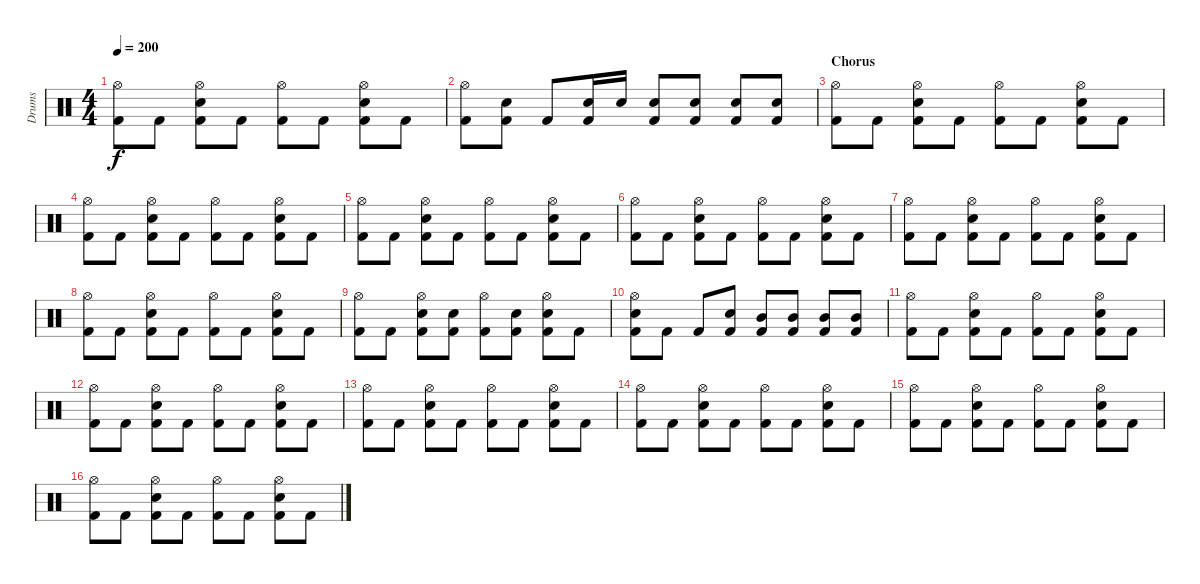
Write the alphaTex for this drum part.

\track ("Drums" "Drums") {instrument percussion}
\staff {score}
\articulation defaults
\ts (4 4)
\tempo 200
\clef neutral
\ks c
("Hi-Hat (open)" "Kick (hit) 2").8{dy f} "Kick (hit) 2".8 ("Hi-Hat (open)" "Snare (hit) 2" "Kick (hit) 2").8 "Kick (hit) 2".8 ("Hi-Hat (open)" "Kick (hit) 2").8 "Kick (hit) 2".8 ("Hi-Hat (open)" "Snare (hit) 2" "Kick (hit) 2").8 "Kick (hit) 2".8 |
("Hi-Hat (open)" "Kick (hit) 2").8 ("Snare (hit) 2" "Kick (hit) 2").8 "Kick (hit) 2".8 ("Snare (hit) 2" "Kick (hit) 2").16 "Snare (hit) 2".16 ("Snare (hit) 2" "Kick (hit) 2").8 ("Snare (hit) 2" "Kick (hit) 2").8 ("Snare (hit) 2" "Kick (hit) 2").8 ("Snare (hit) 2" "Kick (hit) 2").8 |
\section ("" "Chorus")
("Hi-Hat (open)" "Kick (hit) 2").8 "Kick (hit) 2".8 ("Hi-Hat (open)" "Snare (hit) 2" "Kick (hit) 2").8 "Kick (hit) 2".8 ("Hi-Hat (open)" "Kick (hit) 2").8 "Kick (hit) 2".8 ("Hi-Hat (open)" "Snare (hit) 2" "Kick (hit) 2").8 "Kick (hit) 2".8 |
("Hi-Hat (open)" "Kick (hit) 2").8 "Kick (hit) 2".8 ("Hi-Hat (open)" "Snare (hit) 2" "Kick (hit) 2").8 "Kick (hit) 2".8 ("Hi-Hat (open)" "Kick (hit) 2").8 "Kick (hit) 2".8 ("Hi-Hat (open)" "Snare (hit) 2" "Kick (hit) 2").8 "Kick (hit) 2".8 |
("Hi-Hat (open)" "Kick (hit) 2").8 "Kick (hit) 2".8 ("Hi-Hat (open)" "Snare (hit) 2" "Kick (hit) 2").8 "Kick (hit) 2".8 ("Hi-Hat (open)" "Kick (hit) 2").8 "Kick (hit) 2".8 ("Hi-Hat (open)" "Snare (hit) 2" "Kick (hit) 2").8 "Kick (hit) 2".8 |
("Hi-Hat (open)" "Kick (hit) 2").8 "Kick (hit) 2".8 ("Hi-Hat (open)" "Snare (hit) 2" "Kick (hit) 2").8 "Kick (hit) 2".8 ("Hi-Hat (open)" "Kick (hit) 2").8 "Kick (hit) 2".8 ("Hi-Hat (open)" "Snare (hit) 2" "Kick (hit) 2").8 "Kick (hit) 2".8 |
("Hi-Hat (open)" "Kick (hit) 2").8 "Kick (hit) 2".8 ("Hi-Hat (open)" "Snare (hit) 2" "Kick (hit) 2").8 "Kick (hit) 2".8 ("Hi-Hat (open)" "Kick (hit) 2").8 "Kick (hit) 2".8 ("Hi-Hat (open)" "Snare (hit) 2" "Kick (hit) 2").8 "Kick (hit) 2".8 |
("Hi-Hat (open)" "Kick (hit) 2").8 "Kick (hit) 2".8 ("Hi-Hat (open)" "Snare (hit) 2" "Kick (hit) 2").8 "Kick (hit) 2".8 ("Hi-Hat (open)" "Kick (hit) 2").8 "Kick (hit) 2".8 ("Hi-Hat (open)" "Snare (hit) 2" "Kick (hit) 2").8 "Kick (hit) 2".8 |
("Hi-Hat (open)" "Kick (hit) 2").8 "Kick (hit) 2".8 ("Hi-Hat (open)" "Snare (hit) 2" "Kick (hit) 2").8 ("Snare (hit) 2" "Kick (hit) 2").8 ("Hi-Hat (open)" "Kick (hit) 2").8 ("Snare (hit) 2" "Kick (hit) 2").8 ("Hi-Hat (open)" "Snare (hit) 2" "Kick (hit) 2").8 "Kick (hit) 2".8 |
("Hi-Hat (open)" "Snare (hit) 2" "Kick (hit) 2").8 "Kick (hit) 2".8 "Kick (hit) 2".8 ("Snare (hit) 2" "Kick (hit) 2").8 ("Mid Tom (hit)" "Kick (hit) 2").8 ("Mid Tom (hit)" "Kick (hit) 2").8 ("Mid Tom (hit)" "Kick (hit) 2").8 ("Mid Tom (hit)" "Kick (hit) 2").8 |
("Hi-Hat (open)" "Kick (hit) 2").8 "Kick (hit) 2".8 ("Hi-Hat (open)" "Snare (hit) 2" "Kick (hit) 2").8 "Kick (hit) 2".8 ("Hi-Hat (open)" "Kick (hit) 2").8 "Kick (hit) 2".8 ("Hi-Hat (open)" "Snare (hit) 2" "Kick (hit) 2").8 "Kick (hit) 2".8 |
("Hi-Hat (open)" "Kick (hit) 2").8 "Kick (hit) 2".8 ("Hi-Hat (open)" "Snare (hit) 2" "Kick (hit) 2").8 "Kick (hit) 2".8 ("Hi-Hat (open)" "Kick (hit) 2").8 "Kick (hit) 2".8 ("Hi-Hat (open)" "Snare (hit) 2" "Kick (hit) 2").8 "Kick (hit) 2".8 |
("Hi-Hat (open)" "Kick (hit) 2").8 "Kick (hit) 2".8 ("Hi-Hat (open)" "Snare (hit) 2" "Kick (hit) 2").8 "Kick (hit) 2".8 ("Hi-Hat (open)" "Kick (hit) 2").8 "Kick (hit) 2".8 ("Hi-Hat (open)" "Snare (hit) 2" "Kick (hit) 2").8 "Kick (hit) 2".8 |
("Hi-Hat (open)" "Kick (hit) 2").8 "Kick (hit) 2".8 ("Hi-Hat (open)" "Snare (hit) 2" "Kick (hit) 2").8 "Kick (hit) 2".8 ("Hi-Hat (open)" "Kick (hit) 2").8 "Kick (hit) 2".8 ("Hi-Hat (open)" "Snare (hit) 2" "Kick (hit) 2").8 "Kick (hit) 2".8 |
("Hi-Hat (open)" "Kick (hit) 2").8 "Kick (hit) 2".8 ("Hi-Hat (open)" "Snare (hit) 2" "Kick (hit) 2").8 "Kick (hit) 2".8 ("Hi-Hat (open)" "Kick (hit) 2").8 "Kick (hit) 2".8 ("Hi-Hat (open)" "Snare (hit) 2" "Kick (hit) 2").8 "Kick (hit) 2".8 |
("Hi-Hat (open)" "Kick (hit) 2").8 "Kick (hit) 2".8 ("Hi-Hat (open)" "Snare (hit) 2" "Kick (hit) 2").8 "Kick (hit) 2".8 ("Hi-Hat (open)" "Kick (hit) 2").8 "Kick (hit) 2".8 ("Hi-Hat (open)" "Snare (hit) 2" "Kick (hit) 2").8 "Kick (hit) 2".8
